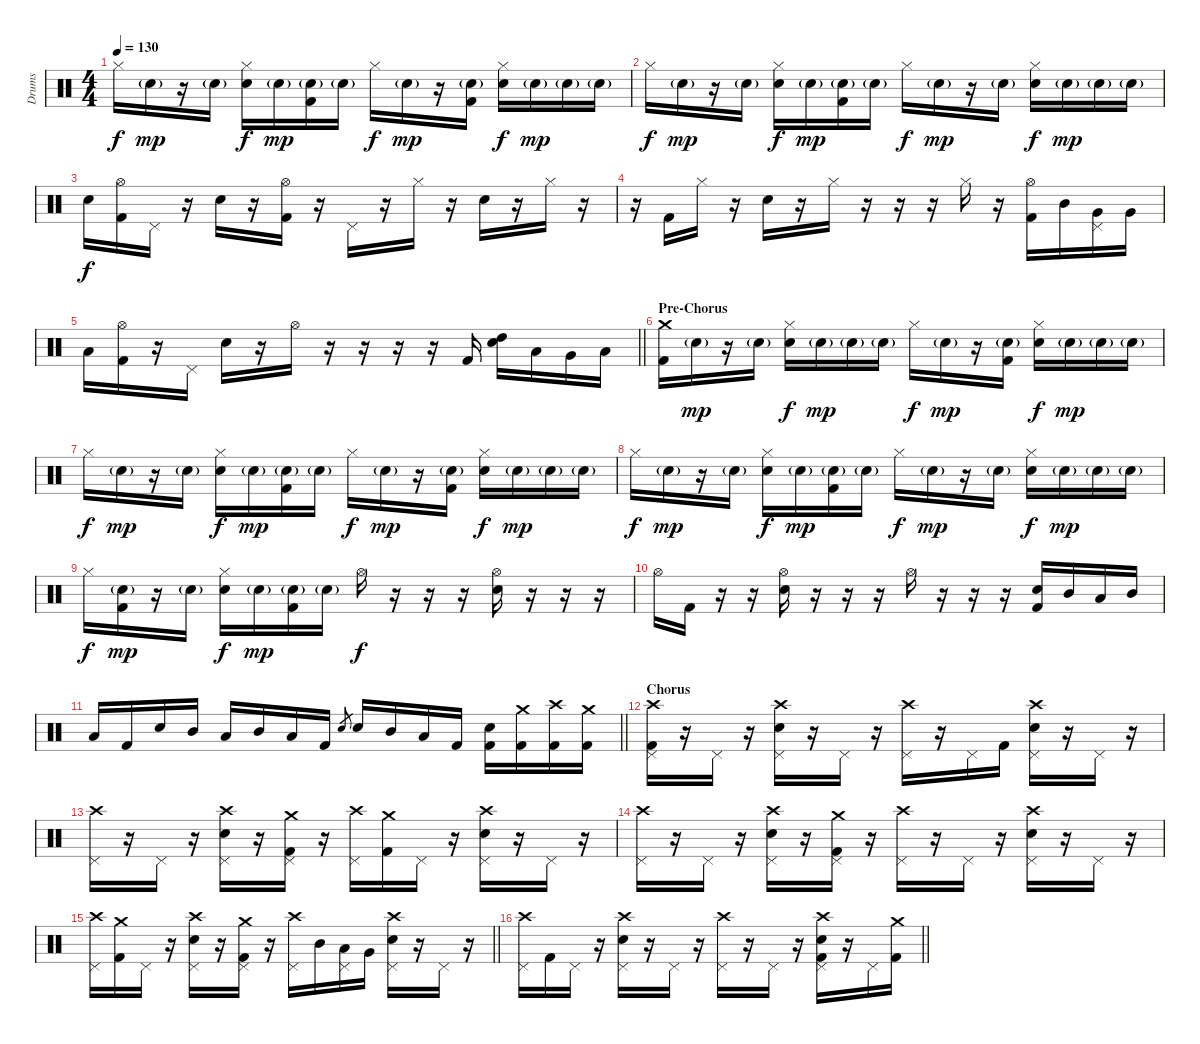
\track ("Drums" "Drums") {instrument percussion}
\staff {score}
\articulation defaults
\ts (4 4)
\tempo 130
\clef neutral
\ks c "Hi-Hat (closed)".16{dy f} "Electric Snare (hit)"{g}.16{dy mp}
r.16 "Electric Snare (hit)"{g}.16 ("Hi-Hat (closed)" "Electric Snare (hit)").16{dy f} "Electric Snare (hit)"{g}.16{dy mp} ("Electric Snare (hit)"{g} "Kick (hit) 2").16 "Electric Snare (hit)"{g}.16 "Hi-Hat (closed)".16{dy f} "Electric Snare (hit)"{g}.16{dy mp} r.16 ("Electric Snare (hit)"{g} "Kick (hit) 2").16 ("Hi-Hat (closed)" "Electric Snare (hit)").16{dy f} "Electric Snare (hit)"{g}.16{dy mp} "Electric Snare (hit)"{g}.16 "Electric Snare (hit)"{g}.16 |
"Hi-Hat (closed)".16{dy f} "Electric Snare (hit)"{g}.16{dy mp} r.16 "Electric Snare (hit)"{g}.16 ("Hi-Hat (closed)" "Electric Snare (hit)").16{dy f} "Electric Snare (hit)"{g}.16{dy mp} ("Electric Snare (hit)"{g} "Kick (hit) 2").16 "Electric Snare (hit)"{g}.16 "Hi-Hat (closed)".16{dy f} "Electric Snare (hit)"{g}.16{dy mp} r.16 "Electric Snare (hit)"{g}.16 ("Hi-Hat (closed)" "Electric Snare (hit)").16{dy f} "Electric Snare (hit)"{g}.16{dy mp} "Electric Snare (hit)"{g}.16 "Electric Snare (hit)"{g}.16 |
"Electric Snare (hit)".16{dy f} ("Hi-Hat (open)" "Kick (hit) 2").16 "Pedal Hi-Hat (hit)".16 r.16 "Electric Snare (hit)".16 r.16 ("Hi-Hat (open)" "Kick (hit) 2").16 r.16 "Pedal Hi-Hat (hit)".16 r.16 "Hi-Hat (closed)".16 r.16 "Electric Snare (hit)".16 r.16 "Hi-Hat (closed)".16 r.16 |
r.16 "Kick (hit) 2".16 "Hi-Hat (closed)".16 r.16 "Electric Snare (hit)".16 r.16 "Hi-Hat (closed)".16 r.16 r.16 r.16 "Hi-Hat (closed)".16 r.16 ("Hi-Hat (open)" "Kick (hit) 2").16 "Mid Tom (hit)".16 ("Pedal Hi-Hat (hit)" "Very Low Tom (hit)").16 "Very Low Tom (hit)".16 |
\barLineRight lightlight "Low Floor Tom (hit)".16
("Hi-Hat (open)" "Kick (hit) 2").16 r.16 "Pedal Hi-Hat (hit)".16 "Electric Snare (hit)".16 r.16 "Hi-Hat (open)".16 r.16 r.16 r.16 r.16 "Kick (hit) 2".16 ("High Tom (hit)" "Electric Snare (hit)").16 "Low Tom (hit)".16 "Very Low Tom (hit)".16 "Low Floor Tom (hit)".16 |
\section ("" "Pre-Chorus")
("Crash medium (hit)" "Kick (hit) 2").16 "Electric Snare (hit)"{g}.16{dy mp} r.16 "Electric Snare (hit)"{g}.16 ("Hi-Hat (closed)" "Electric Snare (hit)").16{dy f} "Electric Snare (hit)"{g}.16{dy mp} "Electric Snare (hit)"{g}.16 "Electric Snare (hit)"{g}.16 "Hi-Hat (closed)".16{dy f} "Electric Snare (hit)"{g}.16{dy mp} r.16 ("Electric Snare (hit)"{g} "Kick (hit) 2").16 ("Hi-Hat (closed)" "Electric Snare (hit)").16{dy f} "Electric Snare (hit)"{g}.16{dy mp} "Electric Snare (hit)"{g}.16 "Electric Snare (hit)"{g}.16 |
"Hi-Hat (closed)".16{dy f} "Electric Snare (hit)"{g}.16{dy mp} r.16 "Electric Snare (hit)"{g}.16 ("Hi-Hat (closed)" "Electric Snare (hit)").16{dy f} "Electric Snare (hit)"{g}.16{dy mp} ("Electric Snare (hit)"{g} "Kick (hit) 2").16 "Electric Snare (hit)"{g}.16 "Hi-Hat (closed)".16{dy f} "Electric Snare (hit)"{g}.16{dy mp} r.16 ("Electric Snare (hit)"{g} "Kick (hit) 2").16 ("Hi-Hat (closed)" "Electric Snare (hit)").16{dy f} "Electric Snare (hit)"{g}.16{dy mp} "Electric Snare (hit)"{g}.16 "Electric Snare (hit)"{g}.16 |
"Hi-Hat (closed)".16{dy f} "Electric Snare (hit)"{g}.16{dy mp} r.16 "Electric Snare (hit)"{g}.16 ("Hi-Hat (closed)" "Electric Snare (hit)").16{dy f} "Electric Snare (hit)"{g}.16{dy mp} ("Electric Snare (hit)"{g} "Kick (hit) 2").16 "Electric Snare (hit)"{g}.16 "Hi-Hat (closed)".16{dy f} "Electric Snare (hit)"{g}.16{dy mp} r.16 "Electric Snare (hit)"{g}.16 ("Hi-Hat (closed)" "Electric Snare (hit)").16{dy f} "Electric Snare (hit)"{g}.16{dy mp} "Electric Snare (hit)"{g}.16 "Electric Snare (hit)"{g}.16 |
"Hi-Hat (closed)".16{dy f} ("Electric Snare (hit)"{g} "Kick (hit) 2").16{dy mp} r.16 "Electric Snare (hit)"{g}.16 ("Hi-Hat (closed)" "Electric Snare (hit)").16{dy f} "Electric Snare (hit)"{g}.16{dy mp} ("Electric Snare (hit)"{g} "Kick (hit) 2").16 "Electric Snare (hit)"{g}.16 "Hi-Hat (open)".16{dy f} r.16 r.16 r.16 ("Hi-Hat (open)" "Electric Snare (hit)").16 r.16 r.16 r.16 |
"Hi-Hat (open)".16 "Kick (hit) 2".16 r.16 r.16 ("Hi-Hat (open)" "Electric Snare (hit)").16 r.16 r.16 r.16 "Hi-Hat (open)".16 r.16 r.16 r.16 ("Electric Snare (hit)" "Kick (hit) 2").16 "Mid Tom (hit)".16 "Low Tom (hit)".16 "Mid Tom (hit)".16 |
\barLineRight lightlight "Low Tom (hit)".16 "Kick (hit) 2".16 "Electric Snare (hit)".16 "Mid Tom (hit)".16 "Low Tom (hit)".16 "Mid Tom (hit)".16 "Low Tom (hit)".16 "Kick (hit) 2".16 "Electric Snare (hit)".8{gr} "Electric Snare (hit)".16 "Mid Tom (hit)".16 "Low Tom (hit)".16 "Kick (hit) 2".16
("Electric Snare (hit)" "Kick (hit) 2").16 ("Crash medium (hit)" "Kick (hit) 2").16 ("Crash high (hit)" "Kick (hit) 2").16 ("Crash medium (hit)" "Kick (hit) 2").16 |
\section ("" "Chorus")
("Crash high (hit)" "Pedal Hi-Hat (hit)" "Kick (hit) 2").16 r.16 "Pedal Hi-Hat (hit)".16 r.16 ("Crash high (hit)" "Pedal Hi-Hat (hit)" "Electric Snare (hit)").16 r.16 "Pedal Hi-Hat (hit)".16 r.16 ("Crash high (hit)" "Pedal Hi-Hat (hit)").16 r.16 "Pedal Hi-Hat (hit)".16 "Kick (hit) 2".16 ("Crash high (hit)" "Pedal Hi-Hat (hit)" "Electric Snare (hit)").16 r.16 "Pedal Hi-Hat (hit)".16 r.16 |
("Crash high (hit)" "Pedal Hi-Hat (hit)").16 r.16 "Pedal Hi-Hat (hit)".16 r.16 ("Crash high (hit)" "Pedal Hi-Hat (hit)" "Electric Snare (hit)").16 r.16 ("Crash medium (hit)" "Pedal Hi-Hat (hit)" "Kick (hit) 2").16 r.16 ("Crash high (hit)" "Pedal Hi-Hat (hit)").16 ("Crash medium (hit)" "Kick (hit) 2").16 "Pedal Hi-Hat (hit)".16 r.16 ("Crash high (hit)" "Pedal Hi-Hat (hit)" "Electric Snare (hit)").16 r.16 "Pedal Hi-Hat (hit)".16 r.16 |
("Crash high (hit)" "Pedal Hi-Hat (hit)").16 r.16 "Pedal Hi-Hat (hit)".16 r.16 ("Crash high (hit)" "Pedal Hi-Hat (hit)" "Electric Snare (hit)").16 r.16 ("Crash medium (hit)" "Pedal Hi-Hat (hit)" "Kick (hit) 2").16 r.16 ("Crash high (hit)" "Pedal Hi-Hat (hit)").16 r.16 "Pedal Hi-Hat (hit)".16 r.16 ("Crash high (hit)" "Pedal Hi-Hat (hit)" "Electric Snare (hit)").16 r.16 "Pedal Hi-Hat (hit)".16 r.16 |
\barLineRight lightlight
("Crash high (hit)" "Pedal Hi-Hat (hit)").16 ("Crash medium (hit)" "Kick (hit) 2").16 "Pedal Hi-Hat (hit)".16 r.16 ("Crash high (hit)" "Pedal Hi-Hat (hit)" "Electric Snare (hit)").16 r.16 ("Crash medium (hit)" "Pedal Hi-Hat (hit)" "Kick (hit) 2").16 r.16 ("Crash high (hit)" "Pedal Hi-Hat (hit)").16 "Mid Tom (hit)".16 ("Pedal Hi-Hat (hit)" "Low Tom (hit)").16 "Very Low Tom (hit)".16 ("Crash high (hit)" "Pedal Hi-Hat (hit)" "Electric Snare (hit)").16 r.16 "Pedal Hi-Hat (hit)".16 r.16 |
\barLineRight lightlight
("Crash high (hit)" "Pedal Hi-Hat (hit)").16 "Kick (hit) 2".16 "Pedal Hi-Hat (hit)".16 r.16 ("Crash high (hit)" "Pedal Hi-Hat (hit)" "Electric Snare (hit)").16 r.16 "Pedal Hi-Hat (hit)".16 r.16 ("Crash high (hit)" "Pedal Hi-Hat (hit)").16 r.16 "Pedal Hi-Hat (hit)".16 r.16 ("Crash high (hit)" "Pedal Hi-Hat (hit)" "Electric Snare (hit)" "Kick (hit) 2").16 r.16 "Pedal Hi-Hat (hit)".16 ("Crash medium (hit)" "Kick (hit) 2").16
